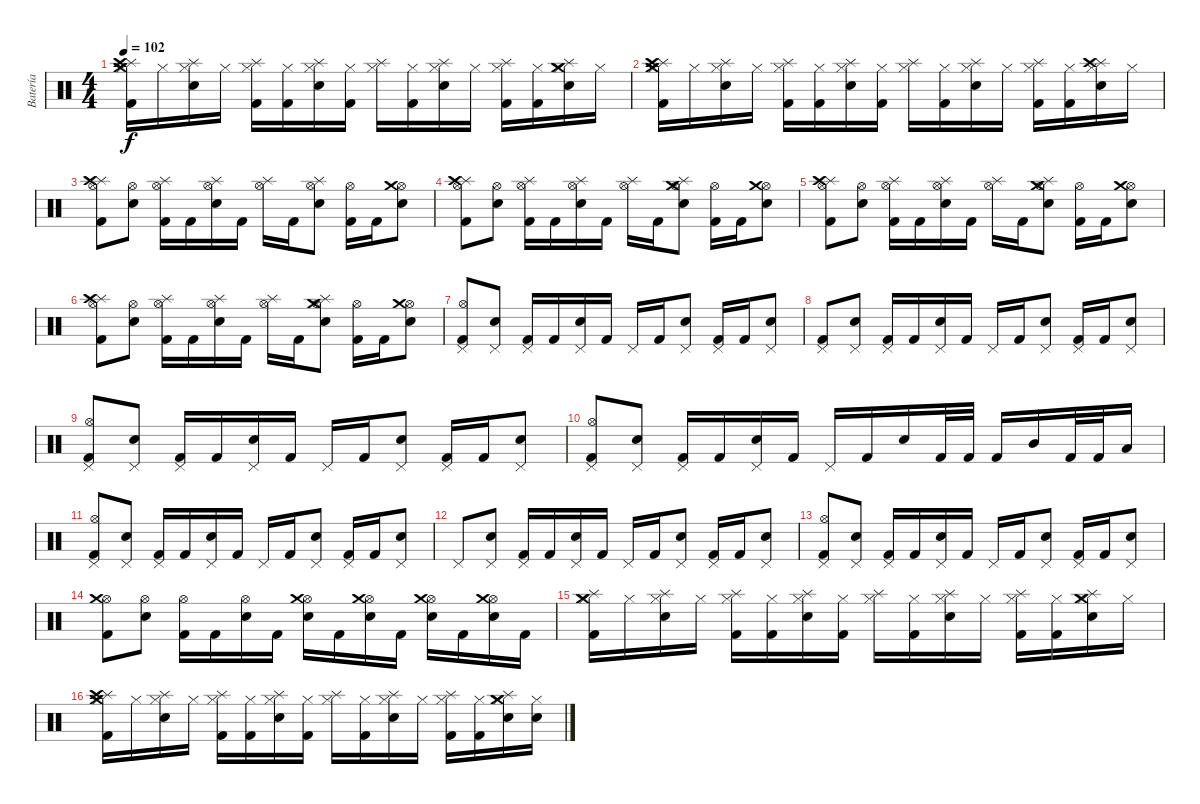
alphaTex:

\track ("Batería" "Batería") {instrument percussion}
\staff {score}
\articulation defaults
\ts (4 4)
\tempo 102
\clef neutral
\ks c
("Hi-Hat (closed)" "Splash (hit)" "Kick (hit) 2" "Crash high (hit)" "Crash medium (hit)").16{dy f} "Hi-Hat (closed)".16 ("Hi-Hat (closed)" "Splash (hit)" "Snare (hit) 2").16 "Hi-Hat (closed)".16 ("Hi-Hat (closed)" "Splash (hit)" "Kick (hit) 2").16 ("Hi-Hat (closed)" "Kick (hit) 2").16 ("Hi-Hat (closed)" "Splash (hit)" "Snare (hit) 2").16 ("Hi-Hat (closed)" "Kick (hit) 2").16 ("Hi-Hat (closed)" "Splash (hit)").16 ("Hi-Hat (closed)" "Kick (hit) 2").16 ("Hi-Hat (closed)" "Splash (hit)" "Snare (hit) 2").16 "Hi-Hat (closed)".16 ("Hi-Hat (closed)" "Splash (hit)" "Kick (hit) 2").16 ("Hi-Hat (closed)" "Kick (hit) 2").16 ("Hi-Hat (closed)" "Splash (hit)" "Snare (hit) 2" "Crash medium (hit)").16 "Hi-Hat (closed)".16 |
("Hi-Hat (closed)" "Splash (hit)" "Kick (hit) 2" "Crash high (hit)" "Crash medium (hit)").16 "Hi-Hat (closed)".16 ("Hi-Hat (closed)" "Splash (hit)" "Snare (hit) 2").16 "Hi-Hat (closed)".16 ("Hi-Hat (closed)" "Splash (hit)" "Kick (hit) 2").16 ("Hi-Hat (closed)" "Kick (hit) 2").16 ("Hi-Hat (closed)" "Splash (hit)" "Snare (hit) 2").16 ("Hi-Hat (closed)" "Kick (hit) 2").16 ("Hi-Hat (closed)" "Splash (hit)").16 ("Hi-Hat (closed)" "Kick (hit) 2").16 ("Hi-Hat (closed)" "Splash (hit)" "Snare (hit) 2").16 "Hi-Hat (closed)".16 ("Hi-Hat (closed)" "Splash (hit)" "Kick (hit) 2").16 ("Hi-Hat (closed)" "Kick (hit) 2").16 ("Hi-Hat (closed)" "Splash (hit)" "Snare (hit) 2" "Crash high (hit)").16 "Hi-Hat (closed)".16 |
("Hi-Hat (open)" "Splash (hit)" "Kick (hit) 2" "Crash high (hit)").8 ("Hi-Hat (open)" "Snare (hit) 2").8 ("Hi-Hat (open)" "Splash (hit)" "Kick (hit) 2").16 "Kick (hit) 2".16 ("Hi-Hat (open)" "Snare (hit) 2" "Splash (hit)").16 "Kick (hit) 2".16 ("Hi-Hat (open)" "Splash (hit)").16 "Kick (hit) 2".16 ("Hi-Hat (open)" "Snare (hit) 2" "Splash (hit)").8 ("Hi-Hat (open)" "Kick (hit) 2").16 "Kick (hit) 2".16 ("Hi-Hat (open)" "Snare (hit) 2" "Crash medium (hit)").8 |
("Hi-Hat (open)" "Splash (hit)" "Kick (hit) 2" "Crash high (hit)").8 ("Hi-Hat (open)" "Snare (hit) 2").8 ("Hi-Hat (open)" "Splash (hit)" "Kick (hit) 2").16 "Kick (hit) 2".16 ("Hi-Hat (open)" "Snare (hit) 2" "Splash (hit)").16 "Kick (hit) 2".16 ("Hi-Hat (open)" "Splash (hit)").16 "Kick (hit) 2".16 ("Hi-Hat (open)" "Snare (hit) 2" "Splash (hit)" "Crash medium (hit)").8 ("Hi-Hat (open)" "Kick (hit) 2").16 "Kick (hit) 2".16 ("Hi-Hat (open)" "Snare (hit) 2" "Crash medium (hit)").8 |
("Hi-Hat (open)" "Splash (hit)" "Kick (hit) 2" "Crash high (hit)").8 ("Hi-Hat (open)" "Snare (hit) 2").8 ("Hi-Hat (open)" "Splash (hit)" "Kick (hit) 2").16 "Kick (hit) 2".16 ("Hi-Hat (open)" "Snare (hit) 2" "Splash (hit)").16 "Kick (hit) 2".16 ("Hi-Hat (open)" "Splash (hit)").16 "Kick (hit) 2".16 ("Hi-Hat (open)" "Snare (hit) 2" "Splash (hit)" "Crash medium (hit)").8 ("Hi-Hat (open)" "Kick (hit) 2").16 "Kick (hit) 2".16 ("Hi-Hat (open)" "Snare (hit) 2" "Crash medium (hit)").8 |
("Hi-Hat (open)" "Splash (hit)" "Kick (hit) 2" "Crash high (hit)").8 ("Hi-Hat (open)" "Snare (hit) 2").8 ("Hi-Hat (open)" "Splash (hit)" "Kick (hit) 2").16 "Kick (hit) 2".16 ("Hi-Hat (open)" "Snare (hit) 2" "Splash (hit)").16 "Kick (hit) 2".16 ("Hi-Hat (open)" "Splash (hit)").16 "Kick (hit) 2".16 ("Hi-Hat (open)" "Snare (hit) 2" "Splash (hit)" "Crash medium (hit)").8 ("Hi-Hat (open)" "Kick (hit) 2").16 "Kick (hit) 2".16 ("Hi-Hat (open)" "Snare (hit) 2" "Crash medium (hit)").8 |
("Pedal Hi-Hat (hit)" "Hi-Hat (open)" "Kick (hit) 2").8 ("Pedal Hi-Hat (hit)" "Snare (hit) 2").8 ("Pedal Hi-Hat (hit)" "Kick (hit) 2").16 "Kick (hit) 2".16 ("Pedal Hi-Hat (hit)" "Snare (hit) 2").16 "Kick (hit) 2".16 "Pedal Hi-Hat (hit)".16 "Kick (hit) 2".16 ("Pedal Hi-Hat (hit)" "Snare (hit) 2").8 ("Pedal Hi-Hat (hit)" "Kick (hit) 2").16 "Kick (hit) 2".16 ("Pedal Hi-Hat (hit)" "Snare (hit) 2").8 |
("Pedal Hi-Hat (hit)" "Kick (hit) 2").8 ("Pedal Hi-Hat (hit)" "Snare (hit) 2").8 ("Pedal Hi-Hat (hit)" "Kick (hit) 2").16 "Kick (hit) 2".16 ("Pedal Hi-Hat (hit)" "Snare (hit) 2").16 "Kick (hit) 2".16 "Pedal Hi-Hat (hit)".16 "Kick (hit) 2".16 ("Pedal Hi-Hat (hit)" "Snare (hit) 2").8 ("Pedal Hi-Hat (hit)" "Kick (hit) 2").16 "Kick (hit) 2".16 ("Pedal Hi-Hat (hit)" "Snare (hit) 2").8 |
("Pedal Hi-Hat (hit)" "Hi-Hat (open)" "Kick (hit) 2").8 ("Pedal Hi-Hat (hit)" "Snare (hit) 2").8 ("Pedal Hi-Hat (hit)" "Kick (hit) 2").16 "Kick (hit) 2".16 ("Pedal Hi-Hat (hit)" "Snare (hit) 2").16 "Kick (hit) 2".16 "Pedal Hi-Hat (hit)".16 "Kick (hit) 2".16 ("Pedal Hi-Hat (hit)" "Snare (hit) 2").8 ("Pedal Hi-Hat (hit)" "Kick (hit) 2").16 "Kick (hit) 2".16 ("Pedal Hi-Hat (hit)" "Snare (hit) 2").8 |
("Pedal Hi-Hat (hit)" "Kick (hit) 2" "Hi-Hat (open)").8 ("Pedal Hi-Hat (hit)" "Snare (hit) 2").8 ("Pedal Hi-Hat (hit)" "Kick (hit) 2").16 "Kick (hit) 2".16 ("Pedal Hi-Hat (hit)" "Snare (hit) 2").16 "Kick (hit) 2".16 "Pedal Hi-Hat (hit)".16 "Kick (hit) 2".16 "Snare (hit) 2".16 "Kick (hit) 2".32 "Kick (hit) 2".32 "Kick (hit) 2".16 "Mid Tom (hit)".16 "Kick (hit) 2".32 "Kick (hit) 2".32 "Low Tom (hit)".16 |
("Pedal Hi-Hat (hit)" "Hi-Hat (open)" "Kick (hit) 2").8 ("Pedal Hi-Hat (hit)" "Snare (hit) 2").8 ("Pedal Hi-Hat (hit)" "Kick (hit) 2").16 "Kick (hit) 2".16 ("Pedal Hi-Hat (hit)" "Snare (hit) 2").16 "Kick (hit) 2".16 "Pedal Hi-Hat (hit)".16 "Kick (hit) 2".16 ("Pedal Hi-Hat (hit)" "Snare (hit) 2").8 ("Pedal Hi-Hat (hit)" "Kick (hit) 2").16 "Kick (hit) 2".16 ("Pedal Hi-Hat (hit)" "Snare (hit) 2").8 |
"Pedal Hi-Hat (hit)".8 ("Pedal Hi-Hat (hit)" "Snare (hit) 2").8 ("Pedal Hi-Hat (hit)" "Kick (hit) 2").16 "Kick (hit) 2".16 ("Pedal Hi-Hat (hit)" "Snare (hit) 2").16 "Kick (hit) 2".16 "Pedal Hi-Hat (hit)".16 "Kick (hit) 2".16 ("Pedal Hi-Hat (hit)" "Snare (hit) 2").8 ("Pedal Hi-Hat (hit)" "Kick (hit) 2").16 "Kick (hit) 2".16 ("Pedal Hi-Hat (hit)" "Snare (hit) 2").8 |
("Pedal Hi-Hat (hit)" "Hi-Hat (open)" "Kick (hit) 2").8 ("Pedal Hi-Hat (hit)" "Snare (hit) 2").8 ("Pedal Hi-Hat (hit)" "Kick (hit) 2").16 "Kick (hit) 2".16 ("Pedal Hi-Hat (hit)" "Snare (hit) 2").16 "Kick (hit) 2".16 "Pedal Hi-Hat (hit)".16 "Kick (hit) 2".16 ("Pedal Hi-Hat (hit)" "Snare (hit) 2").8 ("Pedal Hi-Hat (hit)" "Kick (hit) 2").16 "Kick (hit) 2".16 ("Pedal Hi-Hat (hit)" "Snare (hit) 2").8 |
("Hi-Hat (open)" "Kick (hit) 2" "Crash medium (hit)").8 ("Hi-Hat (open)" "Snare (hit) 2").8 ("Hi-Hat (open)" "Kick (hit) 2").16 "Kick (hit) 2".16 ("Hi-Hat (open)" "Snare (hit) 2").16 "Kick (hit) 2".16 ("Hi-Hat (open)" "Crash medium (hit)" "Snare (hit) 2").16 "Kick (hit) 2".16 ("Hi-Hat (open)" "Crash medium (hit)" "Snare (hit) 2").16 "Kick (hit) 2".16 ("Hi-Hat (open)" "Crash medium (hit)" "Snare (hit) 2").16 "Kick (hit) 2".16 ("Hi-Hat (open)" "Crash medium (hit)" "Snare (hit) 2").16 "Kick (hit) 2".16 |
("Hi-Hat (closed)" "Splash (hit)" "Kick (hit) 2" "Crash medium (hit)").16 "Hi-Hat (closed)".16 ("Hi-Hat (closed)" "Splash (hit)" "Snare (hit) 2").16 "Hi-Hat (closed)".16 ("Hi-Hat (closed)" "Splash (hit)" "Kick (hit) 2").16 ("Hi-Hat (closed)" "Kick (hit) 2").16 ("Hi-Hat (closed)" "Splash (hit)" "Snare (hit) 2").16 ("Hi-Hat (closed)" "Kick (hit) 2").16 ("Hi-Hat (closed)" "Splash (hit)").16 ("Hi-Hat (closed)" "Kick (hit) 2").16 ("Hi-Hat (closed)" "Splash (hit)" "Snare (hit) 2").16 "Hi-Hat (closed)".16 ("Hi-Hat (closed)" "Splash (hit)" "Kick (hit) 2").16 ("Hi-Hat (closed)" "Kick (hit) 2").16 ("Hi-Hat (closed)" "Splash (hit)" "Snare (hit) 2" "Crash medium (hit)").16 "Hi-Hat (closed)".16 |
("Hi-Hat (closed)" "Splash (hit)" "Kick (hit) 2" "Crash high (hit)" "Crash medium (hit)").16 "Hi-Hat (closed)".16 ("Hi-Hat (closed)" "Splash (hit)" "Snare (hit) 2").16 "Hi-Hat (closed)".16 ("Hi-Hat (closed)" "Splash (hit)" "Kick (hit) 2").16 ("Hi-Hat (closed)" "Kick (hit) 2").16 ("Hi-Hat (closed)" "Splash (hit)" "Snare (hit) 2").16 ("Hi-Hat (closed)" "Kick (hit) 2").16 ("Hi-Hat (closed)" "Splash (hit)").16 ("Hi-Hat (closed)" "Kick (hit) 2").16 ("Hi-Hat (closed)" "Splash (hit)" "Snare (hit) 2").16 "Hi-Hat (closed)".16 ("Hi-Hat (closed)" "Splash (hit)" "Kick (hit) 2").16 ("Hi-Hat (closed)" "Kick (hit) 2").16 ("Hi-Hat (closed)" "Splash (hit)" "Snare (hit) 2" "Crash medium (hit)").16 ("Hi-Hat (closed)" "Snare (hit) 2").16
